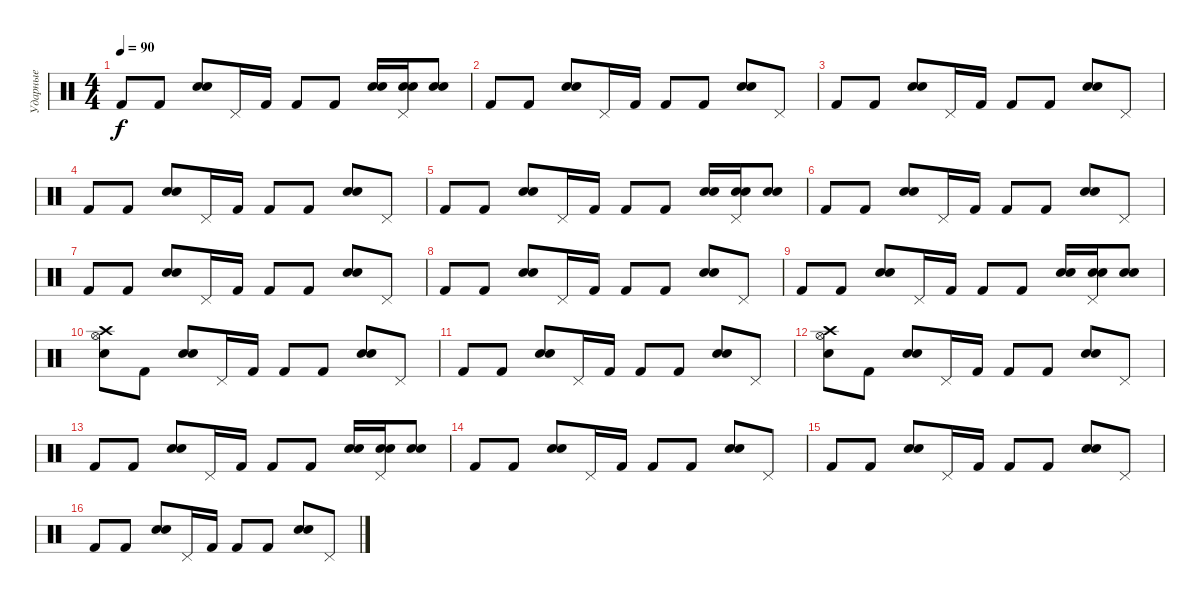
\track ("Ударные" "Ударные") {instrument percussion}
\staff {score}
\articulation defaults
\ts (4 4)
\tempo 90
\clef neutral
\ks c "Kick (hit) 2".8{dy f} "Kick (hit) 2".8
("Electric Snare (hit)" "Snare (hit) 2").8 "Pedal Hi-Hat (hit)".16 "Kick (hit) 2".16 "Kick (hit) 2".8 "Kick (hit) 2".8 ("Electric Snare (hit)" "Snare (hit) 2").16 ("Pedal Hi-Hat (hit)" "Electric Snare (hit)" "Snare (hit) 2").16 ("Electric Snare (hit)" "Snare (hit) 2").8 |
"Kick (hit) 2".8 "Kick (hit) 2".8 ("Electric Snare (hit)" "Snare (hit) 2").8 "Pedal Hi-Hat (hit)".16 "Kick (hit) 2".16 "Kick (hit) 2".8 "Kick (hit) 2".8 ("Electric Snare (hit)" "Snare (hit) 2").8 "Pedal Hi-Hat (hit)".8 |
"Kick (hit) 2".8 "Kick (hit) 2".8 ("Electric Snare (hit)" "Snare (hit) 2").8 "Pedal Hi-Hat (hit)".16 "Kick (hit) 2".16 "Kick (hit) 2".8 "Kick (hit) 2".8 ("Electric Snare (hit)" "Snare (hit) 2").8 "Pedal Hi-Hat (hit)".8 |
"Kick (hit) 2".8 "Kick (hit) 2".8 ("Electric Snare (hit)" "Snare (hit) 2").8 "Pedal Hi-Hat (hit)".16 "Kick (hit) 2".16 "Kick (hit) 2".8 "Kick (hit) 2".8 ("Electric Snare (hit)" "Snare (hit) 2").8 "Pedal Hi-Hat (hit)".8 |
"Kick (hit) 2".8 "Kick (hit) 2".8 ("Electric Snare (hit)" "Snare (hit) 2").8 "Pedal Hi-Hat (hit)".16 "Kick (hit) 2".16 "Kick (hit) 2".8 "Kick (hit) 2".8 ("Electric Snare (hit)" "Snare (hit) 2").16 ("Pedal Hi-Hat (hit)" "Electric Snare (hit)" "Snare (hit) 2").16 ("Electric Snare (hit)" "Snare (hit) 2").8 |
"Kick (hit) 2".8 "Kick (hit) 2".8 ("Electric Snare (hit)" "Snare (hit) 2").8 "Pedal Hi-Hat (hit)".16 "Kick (hit) 2".16 "Kick (hit) 2".8 "Kick (hit) 2".8 ("Electric Snare (hit)" "Snare (hit) 2").8 "Pedal Hi-Hat (hit)".8 |
"Kick (hit) 2".8 "Kick (hit) 2".8 ("Electric Snare (hit)" "Snare (hit) 2").8 "Pedal Hi-Hat (hit)".16 "Kick (hit) 2".16 "Kick (hit) 2".8 "Kick (hit) 2".8 ("Electric Snare (hit)" "Snare (hit) 2").8 "Pedal Hi-Hat (hit)".8 |
"Kick (hit) 2".8 "Kick (hit) 2".8 ("Electric Snare (hit)" "Snare (hit) 2").8 "Pedal Hi-Hat (hit)".16 "Kick (hit) 2".16 "Kick (hit) 2".8 "Kick (hit) 2".8 ("Electric Snare (hit)" "Snare (hit) 2").8 "Pedal Hi-Hat (hit)".8 |
"Kick (hit) 2".8 "Kick (hit) 2".8 ("Electric Snare (hit)" "Snare (hit) 2").8 "Pedal Hi-Hat (hit)".16 "Kick (hit) 2".16 "Kick (hit) 2".8 "Kick (hit) 2".8 ("Electric Snare (hit)" "Snare (hit) 2").16 ("Pedal Hi-Hat (hit)" "Electric Snare (hit)" "Snare (hit) 2").16 ("Electric Snare (hit)" "Snare (hit) 2").8 |
("Crash high (hit)" "Hi-Hat (open)" "Electric Snare (hit)").8 "Kick (hit) 2".8 ("Electric Snare (hit)" "Snare (hit) 2").8 "Pedal Hi-Hat (hit)".16 "Kick (hit) 2".16 "Kick (hit) 2".8 "Kick (hit) 2".8 ("Electric Snare (hit)" "Snare (hit) 2").8 "Pedal Hi-Hat (hit)".8 |
"Kick (hit) 2".8 "Kick (hit) 2".8 ("Electric Snare (hit)" "Snare (hit) 2").8 "Pedal Hi-Hat (hit)".16 "Kick (hit) 2".16 "Kick (hit) 2".8 "Kick (hit) 2".8 ("Electric Snare (hit)" "Snare (hit) 2").8 "Pedal Hi-Hat (hit)".8 |
("Hi-Hat (open)" "Crash high (hit)" "Electric Snare (hit)").8 "Kick (hit) 2".8 ("Electric Snare (hit)" "Snare (hit) 2").8 "Pedal Hi-Hat (hit)".16 "Kick (hit) 2".16 "Kick (hit) 2".8 "Kick (hit) 2".8 ("Electric Snare (hit)" "Snare (hit) 2").8 "Pedal Hi-Hat (hit)".8 |
"Kick (hit) 2".8 "Kick (hit) 2".8 ("Electric Snare (hit)" "Snare (hit) 2").8 "Pedal Hi-Hat (hit)".16 "Kick (hit) 2".16 "Kick (hit) 2".8 "Kick (hit) 2".8 ("Electric Snare (hit)" "Snare (hit) 2").16 ("Pedal Hi-Hat (hit)" "Electric Snare (hit)" "Snare (hit) 2").16 ("Electric Snare (hit)" "Snare (hit) 2").8 |
"Kick (hit) 2".8 "Kick (hit) 2".8 ("Electric Snare (hit)" "Snare (hit) 2").8 "Pedal Hi-Hat (hit)".16 "Kick (hit) 2".16 "Kick (hit) 2".8 "Kick (hit) 2".8 ("Electric Snare (hit)" "Snare (hit) 2").8 "Pedal Hi-Hat (hit)".8 |
"Kick (hit) 2".8 "Kick (hit) 2".8 ("Electric Snare (hit)" "Snare (hit) 2").8 "Pedal Hi-Hat (hit)".16 "Kick (hit) 2".16 "Kick (hit) 2".8 "Kick (hit) 2".8 ("Electric Snare (hit)" "Snare (hit) 2").8 "Pedal Hi-Hat (hit)".8 |
"Kick (hit) 2".8 "Kick (hit) 2".8 ("Electric Snare (hit)" "Snare (hit) 2").8 "Pedal Hi-Hat (hit)".16 "Kick (hit) 2".16 "Kick (hit) 2".8 "Kick (hit) 2".8 ("Electric Snare (hit)" "Snare (hit) 2").8 "Pedal Hi-Hat (hit)".8
